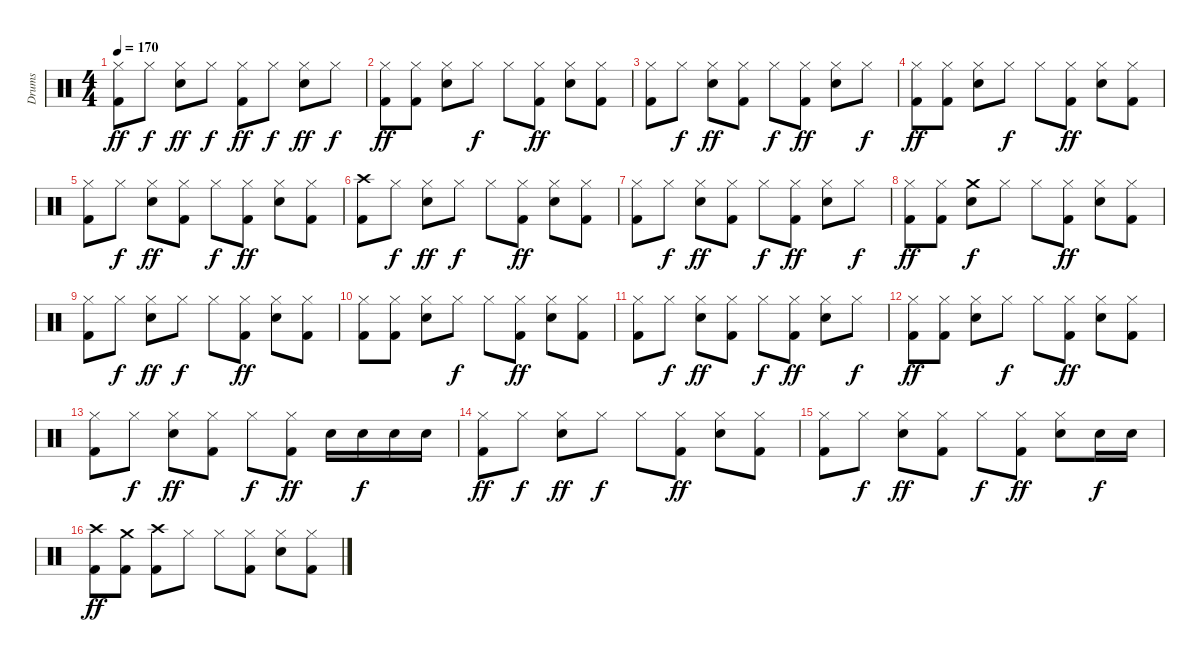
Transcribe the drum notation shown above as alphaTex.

\track ("Drums" "Drums") {instrument percussion}
\staff {score}
\articulation defaults
\ts (4 4)
\tempo 170
\clef neutral
\ks c
("Kick (hit) 2" "Hi-Hat (closed)").8{dy ff} "Hi-Hat (closed)".8{dy f} ("Snare (hit) 2" "Hi-Hat (closed)").8{dy ff} "Hi-Hat (closed)".8{dy f} ("Kick (hit) 2" "Hi-Hat (closed)").8{dy ff} "Hi-Hat (closed)".8{dy f} ("Snare (hit) 2" "Hi-Hat (closed)").8{dy ff} "Hi-Hat (closed)".8{dy f} |
("Kick (hit) 2" "Hi-Hat (closed)").8{dy ff} ("Kick (hit) 2" "Hi-Hat (closed)").8 ("Snare (hit) 2" "Hi-Hat (closed)").8 "Hi-Hat (closed)".8{dy f} "Hi-Hat (closed)".8 ("Kick (hit) 2" "Hi-Hat (closed)").8{dy ff} ("Snare (hit) 2" "Hi-Hat (closed)").8 ("Kick (hit) 2" "Hi-Hat (closed)").8 |
("Kick (hit) 2" "Hi-Hat (closed)").8 "Hi-Hat (closed)".8{dy f} ("Snare (hit) 2" "Hi-Hat (closed)").8{dy ff} ("Kick (hit) 2" "Hi-Hat (closed)").8 "Hi-Hat (closed)".8{dy f} ("Kick (hit) 2" "Hi-Hat (closed)").8{dy ff} ("Snare (hit) 2" "Hi-Hat (closed)").8 "Hi-Hat (closed)".8{dy f} |
("Kick (hit) 2" "Hi-Hat (closed)").8{dy ff} ("Kick (hit) 2" "Hi-Hat (closed)").8 ("Snare (hit) 2" "Hi-Hat (closed)").8 "Hi-Hat (closed)".8{dy f} "Hi-Hat (closed)".8 ("Kick (hit) 2" "Hi-Hat (closed)").8{dy ff} ("Snare (hit) 2" "Hi-Hat (closed)").8 ("Kick (hit) 2" "Hi-Hat (closed)").8 |
("Kick (hit) 2" "Hi-Hat (closed)").8 "Hi-Hat (closed)".8{dy f} ("Snare (hit) 2" "Hi-Hat (closed)").8{dy ff} ("Kick (hit) 2" "Hi-Hat (closed)").8 "Hi-Hat (closed)".8{dy f} ("Kick (hit) 2" "Hi-Hat (closed)").8{dy ff} ("Snare (hit) 2" "Hi-Hat (closed)").8 ("Kick (hit) 2" "Hi-Hat (closed)").8 |
("Crash high (hit)" "Kick (hit) 2").8 "Hi-Hat (closed)".8{dy f} ("Snare (hit) 2" "Hi-Hat (closed)").8{dy ff} "Hi-Hat (closed)".8{dy f} "Hi-Hat (closed)".8 ("Kick (hit) 2" "Hi-Hat (closed)").8{dy ff} ("Snare (hit) 2" "Hi-Hat (closed)").8 ("Kick (hit) 2" "Hi-Hat (closed)").8 |
("Kick (hit) 2" "Hi-Hat (closed)").8 "Hi-Hat (closed)".8{dy f} ("Snare (hit) 2" "Hi-Hat (closed)").8{dy ff} ("Kick (hit) 2" "Hi-Hat (closed)").8 "Hi-Hat (closed)".8{dy f} ("Kick (hit) 2" "Hi-Hat (closed)").8{dy ff} ("Snare (hit) 2" "Hi-Hat (closed)").8 "Hi-Hat (closed)".8{dy f} |
("Kick (hit) 2" "Hi-Hat (closed)").8{dy ff} ("Kick (hit) 2" "Hi-Hat (closed)").8 ("Crash medium (hit)" "Snare (hit) 2").8{dy f} "Hi-Hat (closed)".8 "Hi-Hat (closed)".8 ("Kick (hit) 2" "Hi-Hat (closed)").8{dy ff} ("Snare (hit) 2" "Hi-Hat (closed)").8 ("Kick (hit) 2" "Hi-Hat (closed)").8 |
("Kick (hit) 2" "Hi-Hat (closed)").8 "Hi-Hat (closed)".8{dy f} ("Snare (hit) 2" "Hi-Hat (closed)").8{dy ff} "Hi-Hat (closed)".8{dy f} "Hi-Hat (closed)".8 ("Kick (hit) 2" "Hi-Hat (closed)").8{dy ff} ("Snare (hit) 2" "Hi-Hat (closed)").8 ("Kick (hit) 2" "Hi-Hat (closed)").8 |
("Kick (hit) 2" "Hi-Hat (closed)").8 ("Kick (hit) 2" "Hi-Hat (closed)").8 ("Snare (hit) 2" "Hi-Hat (closed)").8 "Hi-Hat (closed)".8{dy f} "Hi-Hat (closed)".8 ("Kick (hit) 2" "Hi-Hat (closed)").8{dy ff} ("Snare (hit) 2" "Hi-Hat (closed)").8 ("Kick (hit) 2" "Hi-Hat (closed)").8 |
("Kick (hit) 2" "Hi-Hat (closed)").8 "Hi-Hat (closed)".8{dy f} ("Snare (hit) 2" "Hi-Hat (closed)").8{dy ff} ("Kick (hit) 2" "Hi-Hat (closed)").8 "Hi-Hat (closed)".8{dy f} ("Kick (hit) 2" "Hi-Hat (closed)").8{dy ff} ("Snare (hit) 2" "Hi-Hat (closed)").8 "Hi-Hat (closed)".8{dy f} |
("Kick (hit) 2" "Hi-Hat (closed)").8{dy ff} ("Kick (hit) 2" "Hi-Hat (closed)").8 ("Snare (hit) 2" "Hi-Hat (closed)").8 "Hi-Hat (closed)".8{dy f} "Hi-Hat (closed)".8 ("Kick (hit) 2" "Hi-Hat (closed)").8{dy ff} ("Snare (hit) 2" "Hi-Hat (closed)").8 ("Kick (hit) 2" "Hi-Hat (closed)").8 |
("Hi-Hat (closed)" "Kick (hit) 2").8 "Hi-Hat (closed)".8{dy f} ("Hi-Hat (closed)" "Snare (hit) 2").8{dy ff} ("Hi-Hat (closed)" "Kick (hit) 2").8 "Hi-Hat (closed)".8{dy f} ("Hi-Hat (closed)" "Kick (hit) 2").8{dy ff} "Snare (hit) 2".16 "Snare (hit) 2".16{dy f} "Snare (hit) 2".16 "Snare (hit) 2".16 |
("Kick (hit) 2" "Hi-Hat (closed)").8{dy ff} "Hi-Hat (closed)".8{dy f} ("Snare (hit) 2" "Hi-Hat (closed)").8{dy ff} "Hi-Hat (closed)".8{dy f} "Hi-Hat (closed)".8 ("Kick (hit) 2" "Hi-Hat (closed)").8{dy ff} ("Snare (hit) 2" "Hi-Hat (closed)").8 ("Kick (hit) 2" "Hi-Hat (closed)").8 |
("Kick (hit) 2" "Hi-Hat (closed)").8 "Hi-Hat (closed)".8{dy f} ("Snare (hit) 2" "Hi-Hat (closed)").8{dy ff} ("Kick (hit) 2" "Hi-Hat (closed)").8 "Hi-Hat (closed)".8{dy f} ("Kick (hit) 2" "Hi-Hat (closed)").8{dy ff} ("Snare (hit) 2" "Hi-Hat (closed)").8 "Snare (hit) 2".16{dy f} "Snare (hit) 2".16 |
("Crash high (hit)" "Kick (hit) 2").8{dy ff} ("Crash medium (hit)" "Kick (hit) 2").8 ("Crash high (hit)" "Kick (hit) 2").8 "Hi-Hat (closed)".8 "Hi-Hat (closed)".8 ("Kick (hit) 2" "Hi-Hat (closed)").8 ("Snare (hit) 2" "Hi-Hat (closed)").8 ("Kick (hit) 2" "Hi-Hat (closed)").8
